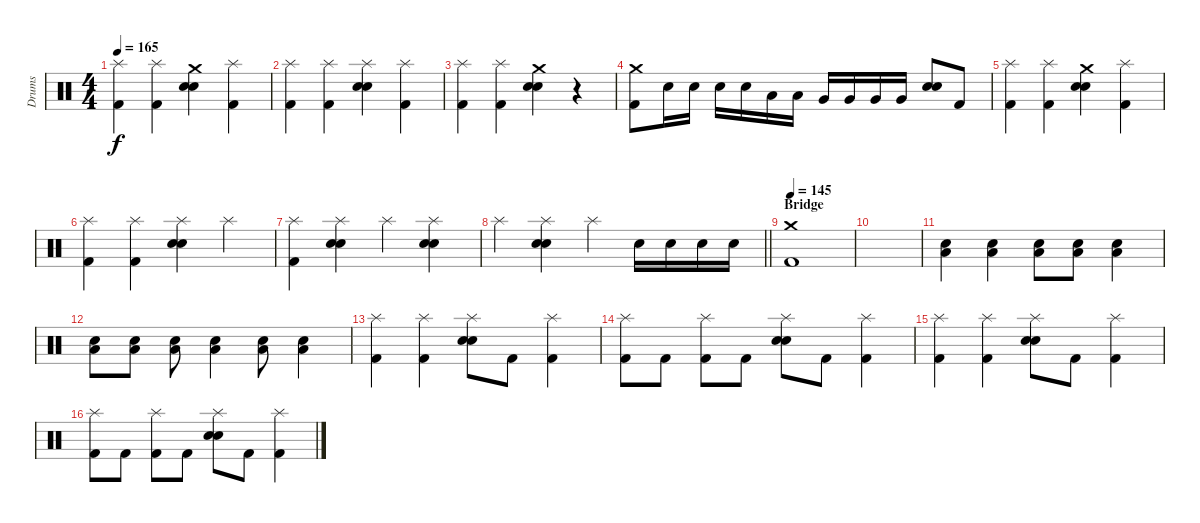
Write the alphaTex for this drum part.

\track ("Drums" "Drums") {instrument percussion}
\staff {score}
\articulation defaults
\ts (4 4)
\tempo 165
\clef neutral
\ks c
("Splash (hit)" "Kick (hit) 2").4{dy f} ("Splash (hit)" "Kick (hit) 2").4 ("Crash medium (hit)" "Electric Snare (hit)" "Snare (hit) 2").4 ("Splash (hit)" "Kick (hit) 2").4 |
("Splash (hit)" "Kick (hit) 2").4 ("Splash (hit)" "Kick (hit) 2").4 ("Splash (hit)" "Electric Snare (hit)" "Snare (hit) 2").4 ("Splash (hit)" "Kick (hit) 2").4 |
("Splash (hit)" "Kick (hit) 2").4 ("Splash (hit)" "Kick (hit) 2").4 ("Crash medium (hit)" "Electric Snare (hit)" "Snare (hit) 2").4 r.4 |
("Crash medium (hit)" "Kick (hit) 2").8 "Electric Snare (hit)".16 "Electric Snare (hit)".16 "Electric Snare (hit)".16 "Electric Snare (hit)".16 "Low Tom (hit)".16 "Low Tom (hit)".16 "Very Low Tom (hit)".16 "Very Low Tom (hit)".16 "Very Low Tom (hit)".16 "Very Low Tom (hit)".16 ("Electric Snare (hit)" "Snare (hit) 2").8 "Kick (hit) 2".8 |
("Splash (hit)" "Kick (hit) 2").4 ("Splash (hit)" "Kick (hit) 2").4 ("Crash medium (hit)" "Electric Snare (hit)" "Snare (hit) 2").4 ("Splash (hit)" "Kick (hit) 2").4 |
("Splash (hit)" "Kick (hit) 2").4 ("Splash (hit)" "Kick (hit) 2").4 ("Splash (hit)" "Electric Snare (hit)" "Snare (hit) 2").4 "Splash (hit)".4 |
("Splash (hit)" "Kick (hit) 2").4 ("Splash (hit)" "Electric Snare (hit)" "Snare (hit) 2").4 "Splash (hit)".4 ("Splash (hit)" "Electric Snare (hit)" "Snare (hit) 2").4 |
\barLineRight lightlight "Splash (hit)".4
("Splash (hit)" "Electric Snare (hit)" "Snare (hit) 2").4 "Splash (hit)".4 "Electric Snare (hit)".16 "Electric Snare (hit)".16 "Electric Snare (hit)".16 "Electric Snare (hit)".16 |
\section ("" "Bridge")
\tempo 145
("Crash medium (hit)" "Kick (hit) 2").1 |
|
("Electric Snare (hit)" "Low Tom (hit)").4{volume 12} ("Electric Snare (hit)" "Low Tom (hit)").4 ("Electric Snare (hit)" "Low Tom (hit)").8 ("Electric Snare (hit)" "Low Tom (hit)").8 ("Electric Snare (hit)" "Low Tom (hit)").4 |
("Electric Snare (hit)" "Low Tom (hit)").8 ("Electric Snare (hit)" "Low Tom (hit)").8 ("Electric Snare (hit)" "Low Tom (hit)").8 ("Electric Snare (hit)" "Low Tom (hit)").4 ("Electric Snare (hit)" "Low Tom (hit)").8 ("Electric Snare (hit)" "Low Tom (hit)").4 |
("Splash (hit)" "Kick (hit) 2").4 ("Splash (hit)" "Kick (hit) 2").4 ("Splash (hit)" "Electric Snare (hit)" "Snare (hit) 2").8 "Kick (hit) 2".8 ("Splash (hit)" "Kick (hit) 2").4 |
("Splash (hit)" "Kick (hit) 2").8 "Kick (hit) 2".8 ("Splash (hit)" "Kick (hit) 2").8 "Kick (hit) 2".8 ("Splash (hit)" "Electric Snare (hit)" "Snare (hit) 2").8 "Kick (hit) 2".8 ("Splash (hit)" "Kick (hit) 2").4 |
("Splash (hit)" "Kick (hit) 2").4 ("Splash (hit)" "Kick (hit) 2").4 ("Splash (hit)" "Electric Snare (hit)" "Snare (hit) 2").8 "Kick (hit) 2".8 ("Splash (hit)" "Kick (hit) 2").4 |
("Splash (hit)" "Kick (hit) 2").8 "Kick (hit) 2".8 ("Splash (hit)" "Kick (hit) 2").8 "Kick (hit) 2".8 ("Splash (hit)" "Electric Snare (hit)" "Snare (hit) 2").8 "Kick (hit) 2".8 ("Splash (hit)" "Kick (hit) 2").4
